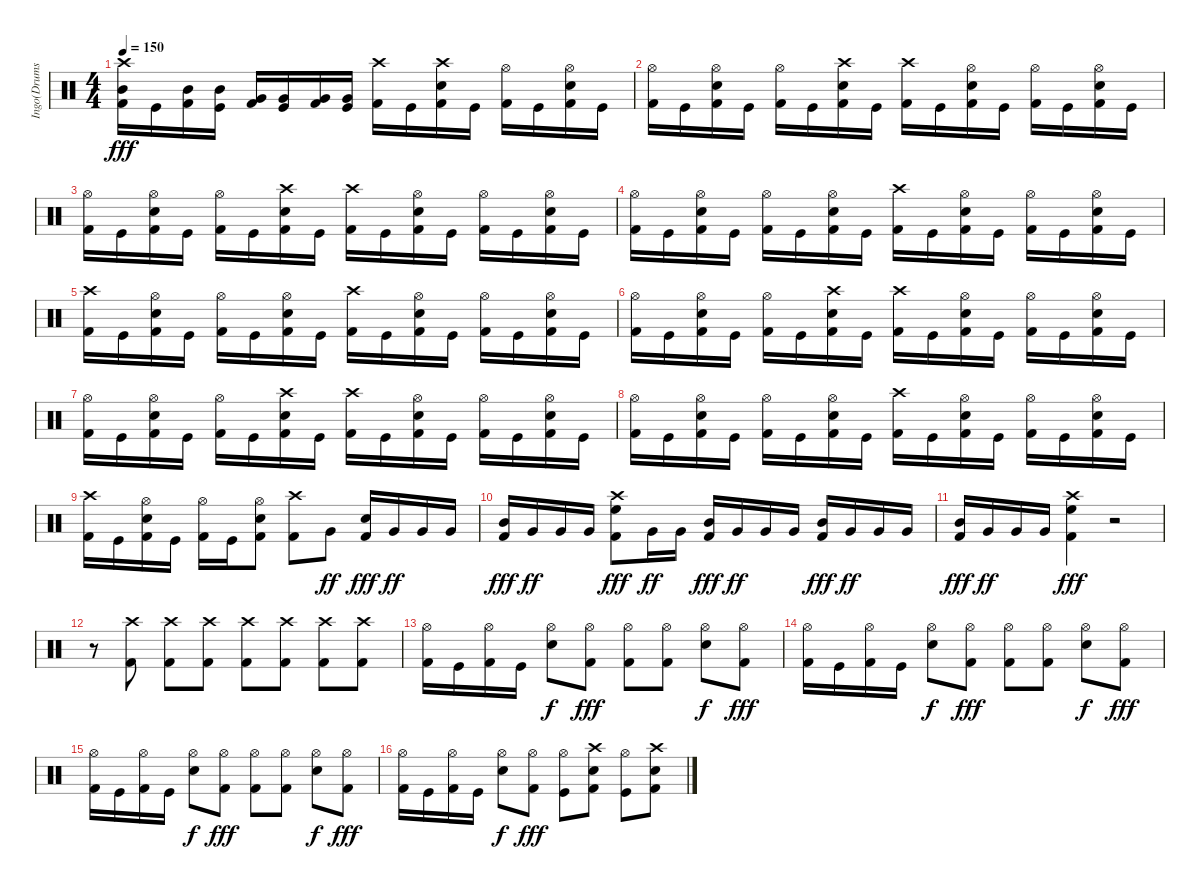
\track ("Ingo(Drums)" "Ingo(Drums") {instrument percussion}
\staff {score}
\articulation defaults
\ts (4 4)
\tempo 150
\clef neutral
\ks c
("Crash high (hit)" "Mid Tom (hit)" "Kick (hit) 2").16{dy fff} "Kick (hit)".16 ("Mid Tom (hit)" "Kick (hit) 2").16 ("Mid Tom (hit)" "Kick (hit)").16 ("Very Low Tom (hit)" "Kick (hit) 2").16 ("Very Low Tom (hit)" "Kick (hit)").16 ("Very Low Tom (hit)" "Kick (hit) 2").16 ("Very Low Tom (hit)" "Kick (hit)").16 ("Crash high (hit)" "Kick (hit) 2").16 "Kick (hit)".16 ("Crash high (hit)" "Electric Snare (hit)" "Kick (hit) 2").16 "Kick (hit)".16 ("Hi-Hat (open)" "Kick (hit) 2").16 "Kick (hit)".16 ("Hi-Hat (open)" "Electric Snare (hit)" "Kick (hit) 2").16 "Kick (hit)".16 |
("Hi-Hat (open)" "Kick (hit) 2").16 "Kick (hit)".16 ("Hi-Hat (open)" "Electric Snare (hit)" "Kick (hit) 2").16 "Kick (hit)".16 ("Hi-Hat (open)" "Kick (hit) 2").16 "Kick (hit)".16 ("Crash high (hit)" "Electric Snare (hit)" "Kick (hit) 2").16 "Kick (hit)".16 ("Crash high (hit)" "Kick (hit) 2").16 "Kick (hit)".16 ("Hi-Hat (open)" "Electric Snare (hit)" "Kick (hit) 2").16 "Kick (hit)".16 ("Hi-Hat (open)" "Kick (hit) 2").16 "Kick (hit)".16 ("Hi-Hat (open)" "Electric Snare (hit)" "Kick (hit) 2").16 "Kick (hit)".16 |
("Hi-Hat (open)" "Kick (hit) 2").16 "Kick (hit)".16 ("Hi-Hat (open)" "Electric Snare (hit)" "Kick (hit) 2").16 "Kick (hit)".16 ("Hi-Hat (open)" "Kick (hit) 2").16 "Kick (hit)".16 ("Crash high (hit)" "Electric Snare (hit)" "Kick (hit) 2").16 "Kick (hit)".16 ("Crash high (hit)" "Kick (hit) 2").16 "Kick (hit)".16 ("Hi-Hat (open)" "Electric Snare (hit)" "Kick (hit) 2").16 "Kick (hit)".16 ("Hi-Hat (open)" "Kick (hit) 2").16 "Kick (hit)".16 ("Hi-Hat (open)" "Electric Snare (hit)" "Kick (hit) 2").16 "Kick (hit)".16 |
("Hi-Hat (open)" "Kick (hit) 2").16 "Kick (hit)".16 ("Hi-Hat (open)" "Electric Snare (hit)" "Kick (hit) 2").16 "Kick (hit)".16 ("Hi-Hat (open)" "Kick (hit) 2").16 "Kick (hit)".16 ("Hi-Hat (open)" "Electric Snare (hit)" "Kick (hit) 2").16 "Kick (hit)".16 ("Crash high (hit)" "Kick (hit) 2").16 "Kick (hit)".16 ("Hi-Hat (open)" "Electric Snare (hit)" "Kick (hit) 2").16 "Kick (hit)".16 ("Hi-Hat (open)" "Kick (hit) 2").16 "Kick (hit)".16 ("Hi-Hat (open)" "Electric Snare (hit)" "Kick (hit) 2").16 "Kick (hit)".16 |
("Crash high (hit)" "Kick (hit) 2").16 "Kick (hit)".16 ("Hi-Hat (open)" "Electric Snare (hit)" "Kick (hit) 2").16 "Kick (hit)".16 ("Hi-Hat (open)" "Kick (hit) 2").16 "Kick (hit)".16 ("Hi-Hat (open)" "Electric Snare (hit)" "Kick (hit) 2").16 "Kick (hit)".16 ("Crash high (hit)" "Kick (hit) 2").16 "Kick (hit)".16 ("Hi-Hat (open)" "Electric Snare (hit)" "Kick (hit) 2").16 "Kick (hit)".16 ("Hi-Hat (open)" "Kick (hit) 2").16 "Kick (hit)".16 ("Hi-Hat (open)" "Electric Snare (hit)" "Kick (hit) 2").16 "Kick (hit)".16 |
("Hi-Hat (open)" "Kick (hit) 2").16 "Kick (hit)".16 ("Hi-Hat (open)" "Electric Snare (hit)" "Kick (hit) 2").16 "Kick (hit)".16 ("Hi-Hat (open)" "Kick (hit) 2").16 "Kick (hit)".16 ("Crash high (hit)" "Electric Snare (hit)" "Kick (hit) 2").16 "Kick (hit)".16 ("Crash high (hit)" "Kick (hit) 2").16 "Kick (hit)".16 ("Hi-Hat (open)" "Electric Snare (hit)" "Kick (hit) 2").16 "Kick (hit)".16 ("Hi-Hat (open)" "Kick (hit) 2").16 "Kick (hit)".16 ("Hi-Hat (open)" "Electric Snare (hit)" "Kick (hit) 2").16 "Kick (hit)".16 |
("Hi-Hat (open)" "Kick (hit) 2").16 "Kick (hit)".16 ("Hi-Hat (open)" "Electric Snare (hit)" "Kick (hit) 2").16 "Kick (hit)".16 ("Hi-Hat (open)" "Kick (hit) 2").16 "Kick (hit)".16 ("Crash high (hit)" "Electric Snare (hit)" "Kick (hit) 2").16 "Kick (hit)".16 ("Crash high (hit)" "Kick (hit) 2").16 "Kick (hit)".16 ("Hi-Hat (open)" "Electric Snare (hit)" "Kick (hit) 2").16 "Kick (hit)".16 ("Hi-Hat (open)" "Kick (hit) 2").16 "Kick (hit)".16 ("Hi-Hat (open)" "Electric Snare (hit)" "Kick (hit) 2").16 "Kick (hit)".16 |
("Hi-Hat (open)" "Kick (hit) 2").16 "Kick (hit)".16 ("Hi-Hat (open)" "Electric Snare (hit)" "Kick (hit) 2").16 "Kick (hit)".16 ("Hi-Hat (open)" "Kick (hit) 2").16 "Kick (hit)".16 ("Hi-Hat (open)" "Electric Snare (hit)" "Kick (hit) 2").16 "Kick (hit)".16 ("Crash high (hit)" "Kick (hit) 2").16 "Kick (hit)".16 ("Hi-Hat (open)" "Electric Snare (hit)" "Kick (hit) 2").16 "Kick (hit)".16 ("Hi-Hat (open)" "Kick (hit) 2").16 "Kick (hit)".16 ("Hi-Hat (open)" "Electric Snare (hit)" "Kick (hit) 2").16 "Kick (hit)".16 |
("Crash high (hit)" "Kick (hit) 2").16 "Kick (hit)".16 ("Hi-Hat (open)" "Electric Snare (hit)" "Kick (hit) 2").16 "Kick (hit)".16 ("Hi-Hat (open)" "Kick (hit) 2").16 "Kick (hit)".16 ("Hi-Hat (open)" "Electric Snare (hit)" "Kick (hit) 2").8 ("Crash high (hit)" "Kick (hit) 2").8 "Very Low Tom (hit)".8{dy ff} ("Electric Snare (hit)" "Kick (hit) 2").16{dy fff} "Very Low Tom (hit)".16{dy ff} "Very Low Tom (hit)".16 "Very Low Tom (hit)".16 |
("Mid Tom (hit)" "Kick (hit) 2").16{dy fff} "Very Low Tom (hit)".16{dy ff} "Very Low Tom (hit)".16 "Very Low Tom (hit)".16 ("Crash high (hit)" "High Floor Tom (hit)" "Kick (hit) 2").8{dy fff} "Very Low Tom (hit)".16{dy ff} "Very Low Tom (hit)".16 ("Mid Tom (hit)" "Kick (hit) 2").16{dy fff} "Very Low Tom (hit)".16{dy ff} "Very Low Tom (hit)".16 "Very Low Tom (hit)".16 ("Mid Tom (hit)" "Kick (hit) 2").16{dy fff} "Very Low Tom (hit)".16{dy ff} "Very Low Tom (hit)".16 "Very Low Tom (hit)".16 |
("Mid Tom (hit)" "Kick (hit) 2").16{dy fff} "Very Low Tom (hit)".16{dy ff} "Very Low Tom (hit)".16 "Very Low Tom (hit)".16 ("Crash high (hit)" "High Floor Tom (hit)" "Kick (hit) 2").4{dy fff} r.2 |
r.8 ("Crash high (hit)" "Kick (hit) 2").8 ("Crash high (hit)" "Kick (hit) 2").8 ("Crash high (hit)" "Kick (hit) 2").8 ("Crash high (hit)" "Kick (hit) 2").8 ("Crash high (hit)" "Kick (hit) 2").8 ("Crash high (hit)" "Kick (hit) 2").8 ("Crash high (hit)" "Kick (hit) 2").8 |
("Hi-Hat (open)" "Kick (hit) 2").16 "Kick (hit)".16 ("Hi-Hat (open)" "Kick (hit) 2").16 "Kick (hit)".16 ("Hi-Hat (open)" "Electric Snare (hit)").8{dy f} ("Hi-Hat (open)" "Kick (hit) 2").8{dy fff} ("Hi-Hat (open)" "Kick (hit) 2").8 ("Hi-Hat (open)" "Kick (hit) 2").8 ("Hi-Hat (open)" "Electric Snare (hit)").8{dy f} ("Hi-Hat (open)" "Kick (hit) 2").8{dy fff} |
("Hi-Hat (open)" "Kick (hit) 2").16 "Kick (hit)".16 ("Hi-Hat (open)" "Kick (hit) 2").16 "Kick (hit)".16 ("Hi-Hat (open)" "Electric Snare (hit)").8{dy f} ("Hi-Hat (open)" "Kick (hit) 2").8{dy fff} ("Hi-Hat (open)" "Kick (hit) 2").8 ("Hi-Hat (open)" "Kick (hit) 2").8 ("Hi-Hat (open)" "Electric Snare (hit)").8{dy f} ("Hi-Hat (open)" "Kick (hit) 2").8{dy fff} |
("Hi-Hat (open)" "Kick (hit) 2").16 "Kick (hit)".16 ("Hi-Hat (open)" "Kick (hit) 2").16 "Kick (hit)".16 ("Hi-Hat (open)" "Electric Snare (hit)").8{dy f} ("Hi-Hat (open)" "Kick (hit) 2").8{dy fff} ("Hi-Hat (open)" "Kick (hit) 2").8 ("Hi-Hat (open)" "Kick (hit) 2").8 ("Hi-Hat (open)" "Electric Snare (hit)").8{dy f} ("Hi-Hat (open)" "Kick (hit) 2").8{dy fff} |
("Hi-Hat (open)" "Kick (hit) 2").16 "Kick (hit)".16 ("Hi-Hat (open)" "Kick (hit) 2").16 "Kick (hit)".16 ("Hi-Hat (open)" "Electric Snare (hit)").8{dy f} ("Hi-Hat (open)" "Kick (hit) 2").8{dy fff} ("Hi-Hat (open)" "Kick (hit)").8 ("Crash high (hit)" "Electric Snare (hit)" "Kick (hit) 2").8 ("Hi-Hat (open)" "Kick (hit)").8 ("Crash high (hit)" "Electric Snare (hit)" "Kick (hit) 2").8
